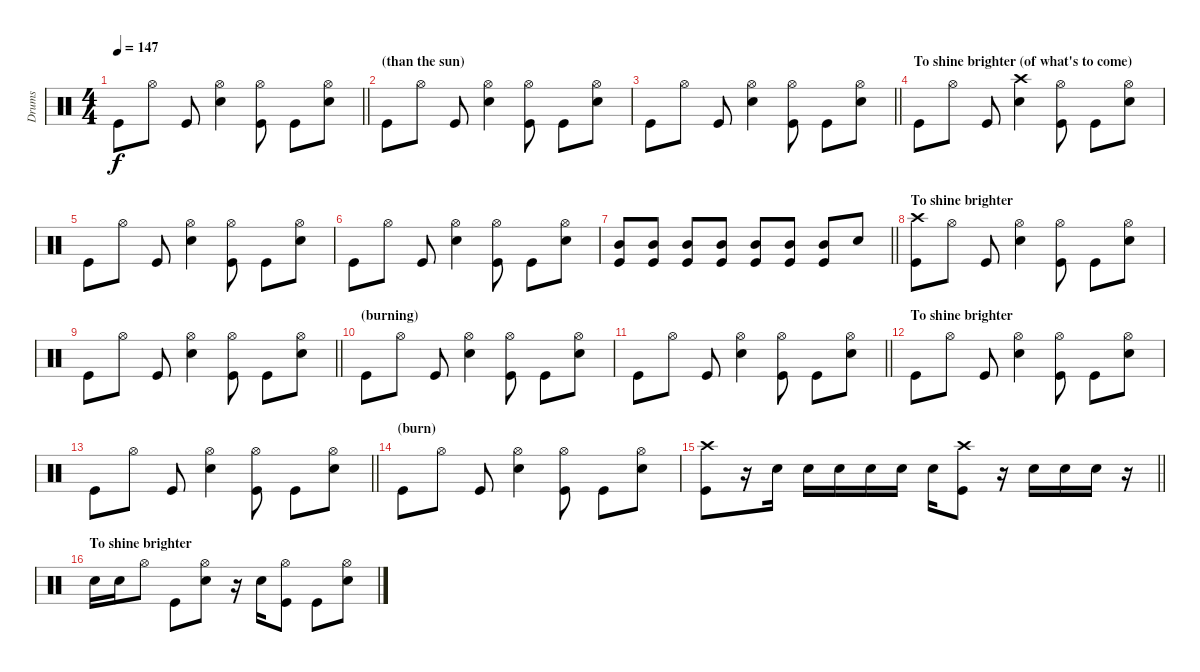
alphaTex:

\track ("Drums" "Drums") {instrument percussion}
\staff {score}
\articulation defaults
\ts (4 4)
\tempo 147
\clef neutral
\barLineRight lightlight
\ks c "Kick (hit)".8{dy f} "Hi-Hat (open)".8 "Kick (hit)".8
("Hi-Hat (open)" "Snare (hit) 2").4 ("Hi-Hat (open)" "Kick (hit)").8 "Kick (hit)".8 ("Hi-Hat (open)" "Snare (hit) 2").8 |
\section ("" "(than the sun) ")
"Kick (hit)".8 "Hi-Hat (open)".8 "Kick (hit)".8 ("Hi-Hat (open)" "Snare (hit) 2").4 ("Hi-Hat (open)" "Kick (hit)").8 "Kick (hit)".8 ("Hi-Hat (open)" "Snare (hit) 2").8 |
\barLineRight lightlight "Kick (hit)".8 "Hi-Hat (open)".8 "Kick (hit)".8
("Hi-Hat (open)" "Snare (hit) 2").4 ("Hi-Hat (open)" "Kick (hit)").8 "Kick (hit)".8 ("Hi-Hat (open)" "Snare (hit) 2").8 |
\section ("" "To shine brighter (of what's to come) ")
"Kick (hit)".8 "Hi-Hat (open)".8 "Kick (hit)".8 ("Crash high (hit)" "Snare (hit) 2").4 ("Hi-Hat (open)" "Kick (hit)").8 "Kick (hit)".8 ("Hi-Hat (open)" "Snare (hit) 2").8 |
"Kick (hit)".8 "Hi-Hat (open)".8 "Kick (hit)".8 ("Hi-Hat (open)" "Snare (hit) 2").4 ("Hi-Hat (open)" "Kick (hit)").8 "Kick (hit)".8 ("Hi-Hat (open)" "Snare (hit) 2").8 |
"Kick (hit)".8 "Hi-Hat (open)".8 "Kick (hit)".8 ("Hi-Hat (open)" "Snare (hit) 2").4 ("Hi-Hat (open)" "Kick (hit)").8 "Kick (hit)".8 ("Hi-Hat (open)" "Snare (hit) 2").8 |
\barLineRight lightlight
("Mid Tom (hit)" "Kick (hit)").8 ("Mid Tom (hit)" "Kick (hit)").8 ("Mid Tom (hit)" "Kick (hit)").8 ("Mid Tom (hit)" "Kick (hit)").8 ("Mid Tom (hit)" "Kick (hit)").8 ("Mid Tom (hit)" "Kick (hit)").8 ("Mid Tom (hit)" "Kick (hit)").8 "Snare (hit) 2".8 |
\section ("" "To shine brighter ")
("Crash high (hit)" "Kick (hit)").8 "Hi-Hat (open)".8 "Kick (hit)".8 ("Hi-Hat (open)" "Snare (hit) 2").4 ("Hi-Hat (open)" "Kick (hit)").8 "Kick (hit)".8 ("Hi-Hat (open)" "Snare (hit) 2").8 |
\barLineRight lightlight "Kick (hit)".8 "Hi-Hat (open)".8 "Kick (hit)".8
("Hi-Hat (open)" "Snare (hit) 2").4 ("Hi-Hat (open)" "Kick (hit)").8 "Kick (hit)".8 ("Hi-Hat (open)" "Snare (hit) 2").8 |
\section ("" "(burning)")
"Kick (hit)".8 "Hi-Hat (open)".8 "Kick (hit)".8 ("Hi-Hat (open)" "Snare (hit) 2").4 ("Hi-Hat (open)" "Kick (hit)").8 "Kick (hit)".8 ("Hi-Hat (open)" "Snare (hit) 2").8 |
\barLineRight lightlight "Kick (hit)".8 "Hi-Hat (open)".8 "Kick (hit)".8
("Hi-Hat (open)" "Snare (hit) 2").4 ("Hi-Hat (open)" "Kick (hit)").8 "Kick (hit)".8 ("Hi-Hat (open)" "Snare (hit) 2").8 |
\section ("" "To shine brighter ")
"Kick (hit)".8 "Hi-Hat (open)".8 "Kick (hit)".8 ("Hi-Hat (open)" "Snare (hit) 2").4 ("Hi-Hat (open)" "Kick (hit)").8 "Kick (hit)".8 ("Hi-Hat (open)" "Snare (hit) 2").8 |
\barLineRight lightlight "Kick (hit)".8 "Hi-Hat (open)".8 "Kick (hit)".8
("Hi-Hat (open)" "Snare (hit) 2").4 ("Hi-Hat (open)" "Kick (hit)").8 "Kick (hit)".8 ("Hi-Hat (open)" "Snare (hit) 2").8 |
\section ("" "(burn)")
"Kick (hit)".8 "Hi-Hat (open)".8 "Kick (hit)".8 ("Hi-Hat (open)" "Snare (hit) 2").4 ("Hi-Hat (open)" "Kick (hit)").8 "Kick (hit)".8 ("Hi-Hat (open)" "Snare (hit) 2").8 |
\barLineRight lightlight
("Crash high (hit)" "Kick (hit)").8 r.16 "Snare (hit) 2".16 "Snare (hit) 2".16 "Snare (hit) 2".16 "Snare (hit) 2".16 "Snare (hit) 2".16 "Snare (hit) 2".16 ("Crash high (hit)" "Kick (hit)").8 r.16 "Snare (hit) 2".16 "Snare (hit) 2".16 "Snare (hit) 2".16 r.16 |
\section ("" "To shine brighter ")
"Snare (hit) 2".16 "Snare (hit) 2".16 "Hi-Hat (open)".8 "Kick (hit)".8 ("Hi-Hat (open)" "Snare (hit) 2").8 r.16 "Snare (hit) 2".16 ("Hi-Hat (open)" "Kick (hit)").8 "Kick (hit)".8 ("Hi-Hat (open)" "Snare (hit) 2").8
